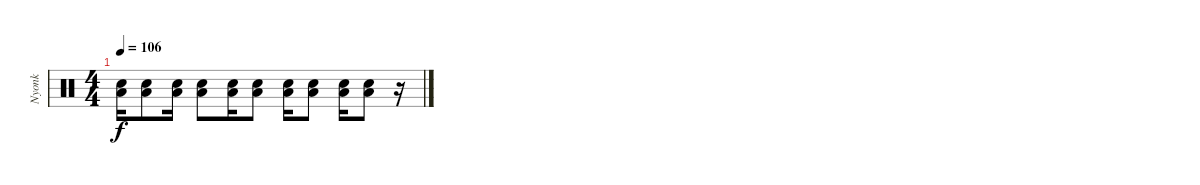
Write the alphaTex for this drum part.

\track ("Nyonk" "Nyonk") {instrument percussion}
\staff {score}
\articulation defaults
\ts (4 4)
\tempo 106
\clef neutral
\ks c
("Low Floor Tom (hit)" "Electric Snare (hit)").16{dy f} ("Low Floor Tom (hit)" "Electric Snare (hit)").8 ("Low Floor Tom (hit)" "Electric Snare (hit)").16 ("Low Floor Tom (hit)" "Electric Snare (hit)").8 ("Low Floor Tom (hit)" "Electric Snare (hit)").16 ("Low Floor Tom (hit)" "Electric Snare (hit)").8 ("Low Floor Tom (hit)" "Electric Snare (hit)").16 ("Low Floor Tom (hit)" "Electric Snare (hit)").8 ("Low Floor Tom (hit)" "Electric Snare (hit)").16 ("Low Floor Tom (hit)" "Electric Snare (hit)").8 r.16
